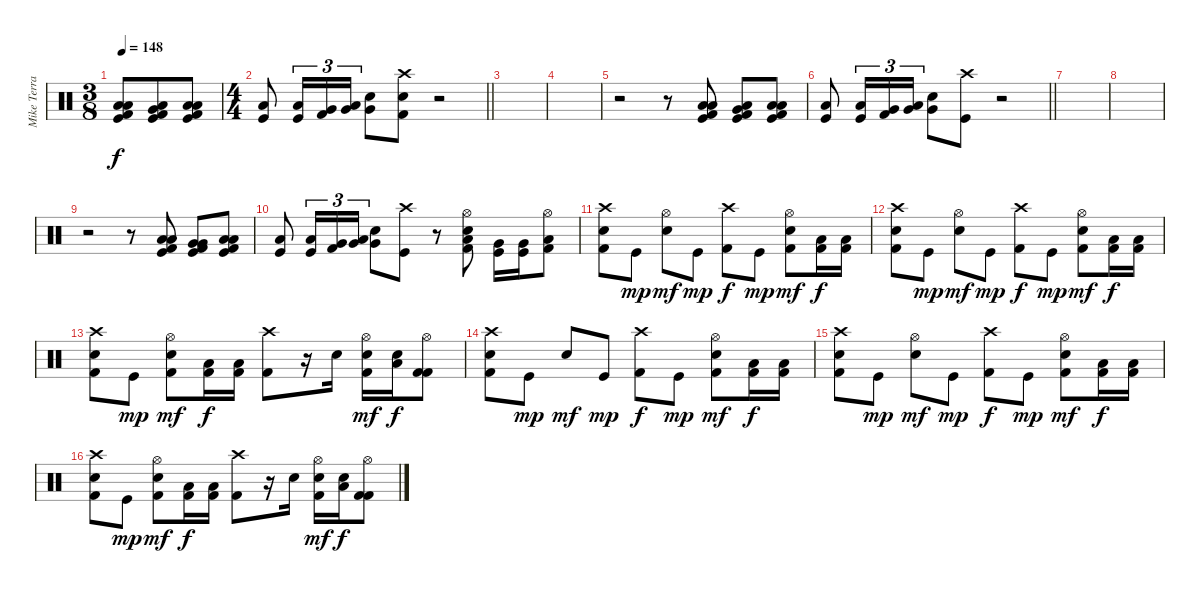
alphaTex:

\track ("Mike Terrana" "Mike Terra") {instrument percussion}
\staff {score}
\articulation defaults
\ts (3 8)
\tempo 148
\clef neutral
\ks c
("Kick (hit)" "Low Floor Tom (hit)" "Kick (hit) 2" "Low Tom (hit)").8{dy f} ("Kick (hit)" "Low Floor Tom (hit)" "Kick (hit) 2" "Very Low Tom (hit)").8 ("Kick (hit)" "Low Floor Tom (hit)" "Kick (hit) 2" "Low Floor Tom (hit)").8 |
\ts (4 4)
\barLineRight lightlight
("Kick (hit)" "Low Floor Tom (hit)").8 ("Low Tom (hit)" "Kick (hit)").16{tu (3 2)} ("Very Low Tom (hit)" "Kick (hit) 2").16{tu (3 2)} ("Low Tom (hit)" "Very Low Tom (hit)").16{tu (3 2)} ("Very Low Tom (hit)" "Snare (hit) 2").8 ("Crash high (hit)" "Snare (hit) 2" "Kick (hit) 2").8 r.2 |
|
|
r.2 r.8 ("Kick (hit)" "Low Floor Tom (hit)" "Kick (hit) 2" "Low Tom (hit)").8 ("Kick (hit)" "Low Floor Tom (hit)" "Kick (hit) 2" "Very Low Tom (hit)").8 ("Kick (hit)" "Low Floor Tom (hit)" "Kick (hit) 2" "Low Floor Tom (hit)").8 |
\barLineRight lightlight
("Kick (hit)" "Low Floor Tom (hit)").8 ("Low Tom (hit)" "Kick (hit)").16{tu (3 2)} ("Very Low Tom (hit)" "Kick (hit) 2").16{tu (3 2)} ("Low Tom (hit)" "Very Low Tom (hit)").16{tu (3 2)} ("Very Low Tom (hit)" "Snare (hit) 2").8 ("Crash high (hit)" "Kick (hit)").8 r.2 |
|
|
r.2 r.8 ("Kick (hit)" "Low Tom (hit)" "Kick (hit) 2" "Low Tom (hit)").8 ("Kick (hit)" "Very Low Tom (hit)" "Kick (hit) 2" "Very Low Tom (hit)").8 ("Kick (hit)" "Low Floor Tom (hit)" "Kick (hit) 2" "Low Floor Tom (hit)").8 |
("Kick (hit)" "Low Floor Tom (hit)").8 ("Low Tom (hit)" "Kick (hit)").16{tu (3 2)} ("Very Low Tom (hit)" "Kick (hit) 2").16{tu (3 2)} ("Low Tom (hit)" "Very Low Tom (hit)").16{tu (3 2)} ("Very Low Tom (hit)" "Snare (hit) 2").8 ("Crash high (hit)" "Kick (hit)").8 r.8 ("Hi-Hat (open)" "Kick (hit) 2" "Snare (hit) 2" "Low Tom (hit)").8 ("Kick (hit)" "Very Low Tom (hit)").16 ("Kick (hit)" "Very Low Tom (hit)").16 ("Hi-Hat (open)" "Kick (hit) 2" "Low Floor Tom (hit)").8 |
("Crash high (hit)" "Kick (hit) 2" "Snare (hit) 2").8 "Kick (hit)".8{dy mp} ("Hi-Hat (open)" "Snare (hit) 2").8{dy mf} "Kick (hit)".8{dy mp} ("Crash high (hit)" "Kick (hit) 2").8{dy f} "Kick (hit)".8{dy mp} ("Hi-Hat (open)" "Kick (hit) 2" "Snare (hit) 2").8{dy mf} ("Low Floor Tom (hit)" "Kick (hit) 2").16{dy f} ("Low Floor Tom (hit)" "Kick (hit) 2").16 |
("Crash high (hit)" "Kick (hit) 2" "Snare (hit) 2").8 "Kick (hit)".8{dy mp} ("Hi-Hat (open)" "Snare (hit) 2").8{dy mf} "Kick (hit)".8{dy mp} ("Crash high (hit)" "Kick (hit) 2").8{dy f} "Kick (hit)".8{dy mp} ("Hi-Hat (open)" "Kick (hit) 2" "Snare (hit) 2").8{dy mf} ("Low Floor Tom (hit)" "Kick (hit) 2").16{dy f} ("Low Floor Tom (hit)" "Kick (hit) 2").16 |
("Crash high (hit)" "Kick (hit) 2" "Snare (hit) 2").8 "Kick (hit)".8{dy mp} ("Hi-Hat (open)" "Kick (hit) 2" "Snare (hit) 2").8{dy mf} ("Low Floor Tom (hit)" "Kick (hit) 2").16{dy f} ("Low Floor Tom (hit)" "Kick (hit) 2").16 ("Crash high (hit)" "Kick (hit) 2").8 r.16 "Snare (hit) 2".16 ("Hi-Hat (open)" "Kick (hit) 2" "Snare (hit) 2").16{dy mf} ("Low Floor Tom (hit)" "Snare (hit) 2").16{dy f} ("Hi-Hat (open)" "Kick (hit) 2" "Kick (hit) 2").8 |
("Crash high (hit)" "Kick (hit) 2" "Snare (hit) 2").8 "Kick (hit)".8{dy mp} "Snare (hit) 2".8{dy mf} "Kick (hit)".8{dy mp} ("Crash high (hit)" "Kick (hit) 2").8{dy f} "Kick (hit)".8{dy mp} ("Hi-Hat (open)" "Kick (hit) 2" "Snare (hit) 2").8{dy mf} ("Low Floor Tom (hit)" "Kick (hit) 2").16{dy f} ("Low Floor Tom (hit)" "Kick (hit) 2").16 |
("Crash high (hit)" "Kick (hit) 2" "Snare (hit) 2").8 "Kick (hit)".8{dy mp} ("Hi-Hat (open)" "Snare (hit) 2").8{dy mf} "Kick (hit)".8{dy mp} ("Crash high (hit)" "Kick (hit) 2").8{dy f} "Kick (hit)".8{dy mp} ("Hi-Hat (open)" "Kick (hit) 2" "Snare (hit) 2").8{dy mf} ("Low Floor Tom (hit)" "Kick (hit) 2").16{dy f} ("Low Floor Tom (hit)" "Kick (hit) 2").16 |
("Crash high (hit)" "Kick (hit) 2" "Snare (hit) 2").8 "Kick (hit)".8{dy mp} ("Hi-Hat (open)" "Kick (hit) 2" "Snare (hit) 2").8{dy mf} ("Low Floor Tom (hit)" "Kick (hit) 2").16{dy f} ("Low Floor Tom (hit)" "Kick (hit) 2").16 ("Crash high (hit)" "Kick (hit) 2").8 r.16 "Snare (hit) 2".16 ("Hi-Hat (open)" "Kick (hit) 2" "Snare (hit) 2").16{dy mf} ("Low Floor Tom (hit)" "Snare (hit) 2").16{dy f} ("Hi-Hat (open)" "Kick (hit) 2" "Kick (hit) 2").8
